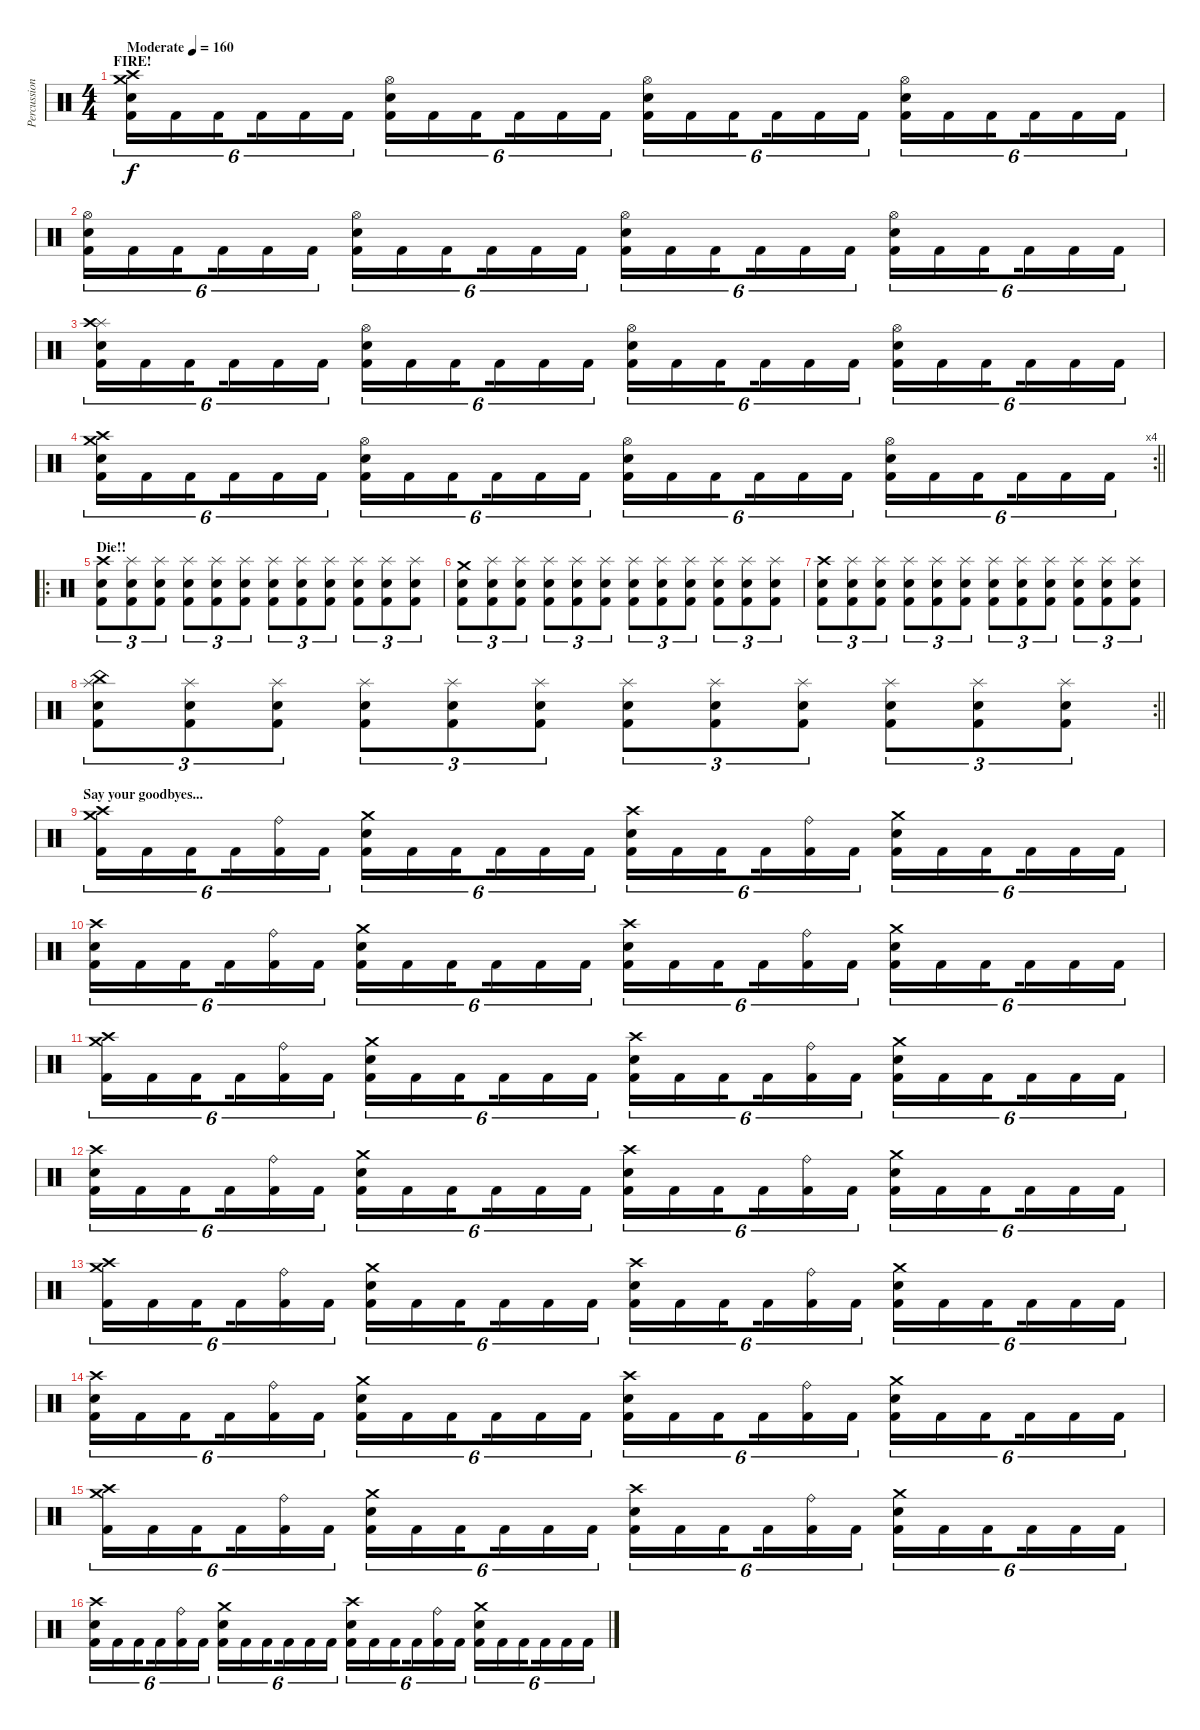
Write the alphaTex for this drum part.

\track ("Percussion" "Percussion") {instrument percussion}
\staff {score}
\articulation defaults
\ts (4 4)
\section ("" "FIRE!")
\tempo (160 "Moderate")
\clef neutral
\ks c
("Crash medium (hit)" "Crash high (hit)" "Electric Snare (hit)" "Kick (hit) 2").16{tu (6 4) dy f} "Kick (hit) 2".16{tu (6 4)} "Kick (hit) 2".16{tu (6 4) beam splitsecondary} "Kick (hit) 2".16{tu (6 4)} "Kick (hit) 2".16{tu (6 4)} "Kick (hit) 2".16{tu (6 4)} ("Hi-Hat (open)" "Electric Snare (hit)" "Kick (hit) 2").16{tu (6 4)} "Kick (hit) 2".16{tu (6 4)} "Kick (hit) 2".16{tu (6 4) beam splitsecondary} "Kick (hit) 2".16{tu (6 4)} "Kick (hit) 2".16{tu (6 4)} "Kick (hit) 2".16{tu (6 4)} ("Hi-Hat (open)" "Electric Snare (hit)" "Kick (hit) 2").16{tu (6 4)} "Kick (hit) 2".16{tu (6 4)} "Kick (hit) 2".16{tu (6 4) beam splitsecondary} "Kick (hit) 2".16{tu (6 4)} "Kick (hit) 2".16{tu (6 4)} "Kick (hit) 2".16{tu (6 4)} ("Hi-Hat (open)" "Electric Snare (hit)" "Kick (hit) 2").16{tu (6 4)} "Kick (hit) 2".16{tu (6 4)} "Kick (hit) 2".16{tu (6 4) beam splitsecondary} "Kick (hit) 2".16{tu (6 4)} "Kick (hit) 2".16{tu (6 4)} "Kick (hit) 2".16{tu (6 4)} |
("Hi-Hat (open)" "Electric Snare (hit)" "Kick (hit) 2").16{tu (6 4)} "Kick (hit) 2".16{tu (6 4)} "Kick (hit) 2".16{tu (6 4) beam splitsecondary} "Kick (hit) 2".16{tu (6 4)} "Kick (hit) 2".16{tu (6 4)} "Kick (hit) 2".16{tu (6 4)} ("Hi-Hat (open)" "Electric Snare (hit)" "Kick (hit) 2").16{tu (6 4)} "Kick (hit) 2".16{tu (6 4)} "Kick (hit) 2".16{tu (6 4) beam splitsecondary} "Kick (hit) 2".16{tu (6 4)} "Kick (hit) 2".16{tu (6 4)} "Kick (hit) 2".16{tu (6 4)} ("Hi-Hat (open)" "Electric Snare (hit)" "Kick (hit) 2").16{tu (6 4)} "Kick (hit) 2".16{tu (6 4)} "Kick (hit) 2".16{tu (6 4) beam splitsecondary} "Kick (hit) 2".16{tu (6 4)} "Kick (hit) 2".16{tu (6 4)} "Kick (hit) 2".16{tu (6 4)} ("Hi-Hat (open)" "Electric Snare (hit)" "Kick (hit) 2").16{tu (6 4)} "Kick (hit) 2".16{tu (6 4)} "Kick (hit) 2".16{tu (6 4) beam splitsecondary} "Kick (hit) 2".16{tu (6 4)} "Kick (hit) 2".16{tu (6 4)} "Kick (hit) 2".16{tu (6 4)} |
("Splash (hit)" "Crash high (hit)" "Electric Snare (hit)" "Kick (hit) 2").16{tu (6 4)} "Kick (hit) 2".16{tu (6 4)} "Kick (hit) 2".16{tu (6 4) beam splitsecondary} "Kick (hit) 2".16{tu (6 4)} "Kick (hit) 2".16{tu (6 4)} "Kick (hit) 2".16{tu (6 4)} ("Hi-Hat (open)" "Electric Snare (hit)" "Kick (hit) 2").16{tu (6 4)} "Kick (hit) 2".16{tu (6 4)} "Kick (hit) 2".16{tu (6 4) beam splitsecondary} "Kick (hit) 2".16{tu (6 4)} "Kick (hit) 2".16{tu (6 4)} "Kick (hit) 2".16{tu (6 4)} ("Hi-Hat (open)" "Electric Snare (hit)" "Kick (hit) 2").16{tu (6 4)} "Kick (hit) 2".16{tu (6 4)} "Kick (hit) 2".16{tu (6 4) beam splitsecondary} "Kick (hit) 2".16{tu (6 4)} "Kick (hit) 2".16{tu (6 4)} "Kick (hit) 2".16{tu (6 4)} ("Hi-Hat (open)" "Electric Snare (hit)" "Kick (hit) 2").16{tu (6 4)} "Kick (hit) 2".16{tu (6 4)} "Kick (hit) 2".16{tu (6 4) beam splitsecondary} "Kick (hit) 2".16{tu (6 4)} "Kick (hit) 2".16{tu (6 4)} "Kick (hit) 2".16{tu (6 4)} |
\rc 4
\barLineRight lightlight
("Crash medium (hit)" "Crash high (hit)" "Electric Snare (hit)" "Kick (hit) 2").16{tu (6 4)} "Kick (hit) 2".16{tu (6 4)} "Kick (hit) 2".16{tu (6 4) beam splitsecondary} "Kick (hit) 2".16{tu (6 4)} "Kick (hit) 2".16{tu (6 4)} "Kick (hit) 2".16{tu (6 4)} ("Hi-Hat (open)" "Electric Snare (hit)" "Kick (hit) 2").16{tu (6 4)} "Kick (hit) 2".16{tu (6 4)} "Kick (hit) 2".16{tu (6 4) beam splitsecondary} "Kick (hit) 2".16{tu (6 4)} "Kick (hit) 2".16{tu (6 4)} "Kick (hit) 2".16{tu (6 4)} ("Hi-Hat (open)" "Electric Snare (hit)" "Kick (hit) 2").16{tu (6 4)} "Kick (hit) 2".16{tu (6 4)} "Kick (hit) 2".16{tu (6 4) beam splitsecondary} "Kick (hit) 2".16{tu (6 4)} "Kick (hit) 2".16{tu (6 4)} "Kick (hit) 2".16{tu (6 4)} ("Hi-Hat (open)" "Electric Snare (hit)" "Kick (hit) 2").16{tu (6 4)} "Kick (hit) 2".16{tu (6 4)} "Kick (hit) 2".16{tu (6 4) beam splitsecondary} "Kick (hit) 2".16{tu (6 4)} "Kick (hit) 2".16{tu (6 4)} "Kick (hit) 2".16{tu (6 4)} |
\ro
\section ("" "Die!!")
("Crash high (hit)" "Electric Snare (hit)" "Kick (hit) 2").8{tu (3 2)} ("Splash (hit)" "Electric Snare (hit)" "Kick (hit) 2").8{tu (3 2)} ("Splash (hit)" "Electric Snare (hit)" "Kick (hit) 2").8{tu (3 2)} ("Splash (hit)" "Electric Snare (hit)" "Kick (hit) 2").8{tu (3 2)} ("Splash (hit)" "Electric Snare (hit)" "Kick (hit) 2").8{tu (3 2)} ("Splash (hit)" "Electric Snare (hit)" "Kick (hit) 2").8{tu (3 2)} ("Splash (hit)" "Electric Snare (hit)" "Kick (hit) 2").8{tu (3 2)} ("Splash (hit)" "Electric Snare (hit)" "Kick (hit) 2").8{tu (3 2)} ("Splash (hit)" "Electric Snare (hit)" "Kick (hit) 2").8{tu (3 2)} ("Splash (hit)" "Electric Snare (hit)" "Kick (hit) 2").8{tu (3 2)} ("Splash (hit)" "Electric Snare (hit)" "Kick (hit) 2").8{tu (3 2)} ("Splash (hit)" "Electric Snare (hit)" "Kick (hit) 2").8{tu (3 2)} |
("Crash medium (hit)" "Electric Snare (hit)" "Kick (hit) 2").8{tu (3 2)} ("Splash (hit)" "Electric Snare (hit)" "Kick (hit) 2").8{tu (3 2)} ("Splash (hit)" "Electric Snare (hit)" "Kick (hit) 2").8{tu (3 2)} ("Splash (hit)" "Electric Snare (hit)" "Kick (hit) 2").8{tu (3 2)} ("Splash (hit)" "Electric Snare (hit)" "Kick (hit) 2").8{tu (3 2)} ("Splash (hit)" "Electric Snare (hit)" "Kick (hit) 2").8{tu (3 2)} ("Splash (hit)" "Electric Snare (hit)" "Kick (hit) 2").8{tu (3 2)} ("Splash (hit)" "Electric Snare (hit)" "Kick (hit) 2").8{tu (3 2)} ("Splash (hit)" "Electric Snare (hit)" "Kick (hit) 2").8{tu (3 2)} ("Splash (hit)" "Electric Snare (hit)" "Kick (hit) 2").8{tu (3 2)} ("Splash (hit)" "Electric Snare (hit)" "Kick (hit) 2").8{tu (3 2)} ("Splash (hit)" "Electric Snare (hit)" "Kick (hit) 2").8{tu (3 2)} |
("Crash high (hit)" "Electric Snare (hit)" "Kick (hit) 2").8{tu (3 2)} ("Splash (hit)" "Electric Snare (hit)" "Kick (hit) 2").8{tu (3 2)} ("Splash (hit)" "Electric Snare (hit)" "Kick (hit) 2").8{tu (3 2)} ("Splash (hit)" "Electric Snare (hit)" "Kick (hit) 2").8{tu (3 2)} ("Splash (hit)" "Electric Snare (hit)" "Kick (hit) 2").8{tu (3 2)} ("Splash (hit)" "Electric Snare (hit)" "Kick (hit) 2").8{tu (3 2)} ("Splash (hit)" "Electric Snare (hit)" "Kick (hit) 2").8{tu (3 2)} ("Splash (hit)" "Electric Snare (hit)" "Kick (hit) 2").8{tu (3 2)} ("Splash (hit)" "Electric Snare (hit)" "Kick (hit) 2").8{tu (3 2)} ("Splash (hit)" "Electric Snare (hit)" "Kick (hit) 2").8{tu (3 2)} ("Splash (hit)" "Electric Snare (hit)" "Kick (hit) 2").8{tu (3 2)} ("Splash (hit)" "Electric Snare (hit)" "Kick (hit) 2").8{tu (3 2)} |
\rc 2
\barLineRight lightlight
("China (hit)" "Splash (hit)" "Electric Snare (hit)" "Kick (hit) 2").8{tu (3 2)} ("Splash (hit)" "Electric Snare (hit)" "Kick (hit) 2").8{tu (3 2)} ("Splash (hit)" "Electric Snare (hit)" "Kick (hit) 2").8{tu (3 2)} ("Splash (hit)" "Electric Snare (hit)" "Kick (hit) 2").8{tu (3 2)} ("Splash (hit)" "Electric Snare (hit)" "Kick (hit) 2").8{tu (3 2)} ("Splash (hit)" "Electric Snare (hit)" "Kick (hit) 2").8{tu (3 2)} ("Splash (hit)" "Electric Snare (hit)" "Kick (hit) 2").8{tu (3 2)} ("Splash (hit)" "Electric Snare (hit)" "Kick (hit) 2").8{tu (3 2)} ("Splash (hit)" "Electric Snare (hit)" "Kick (hit) 2").8{tu (3 2)} ("Splash (hit)" "Electric Snare (hit)" "Kick (hit) 2").8{tu (3 2)} ("Splash (hit)" "Electric Snare (hit)" "Kick (hit) 2").8{tu (3 2)} ("Splash (hit)" "Electric Snare (hit)" "Kick (hit) 2").8{tu (3 2)} |
\section ("" "Say your goodbyes...")
("Crash medium (hit)" "Crash high (hit)" "Kick (hit) 2").16{tu (6 4)} "Kick (hit) 2".16{tu (6 4)} "Kick (hit) 2".16{tu (6 4) beam splitsecondary} "Kick (hit) 2".16{tu (6 4)} ("Ride (bell)" "Kick (hit) 2").16{tu (6 4)} "Kick (hit) 2".16{tu (6 4)} ("Crash medium (hit)" "Electric Snare (hit)" "Kick (hit) 2").16{tu (6 4)} "Kick (hit) 2".16{tu (6 4)} "Kick (hit) 2".16{tu (6 4) beam splitsecondary} "Kick (hit) 2".16{tu (6 4)} "Kick (hit) 2".16{tu (6 4)} "Kick (hit) 2".16{tu (6 4)} ("Crash high (hit)" "Electric Snare (hit)" "Kick (hit) 2").16{tu (6 4)} "Kick (hit) 2".16{tu (6 4)} "Kick (hit) 2".16{tu (6 4) beam splitsecondary} "Kick (hit) 2".16{tu (6 4)} ("Ride (bell)" "Kick (hit) 2").16{tu (6 4)} "Kick (hit) 2".16{tu (6 4)} ("Crash medium (hit)" "Electric Snare (hit)" "Kick (hit) 2").16{tu (6 4)} "Kick (hit) 2".16{tu (6 4)} "Kick (hit) 2".16{tu (6 4) beam splitsecondary} "Kick (hit) 2".16{tu (6 4)} "Kick (hit) 2".16{tu (6 4)} "Kick (hit) 2".16{tu (6 4)} |
("Crash high (hit)" "Electric Snare (hit)" "Kick (hit) 2").16{tu (6 4)} "Kick (hit) 2".16{tu (6 4)} "Kick (hit) 2".16{tu (6 4) beam splitsecondary} "Kick (hit) 2".16{tu (6 4)} ("Ride (bell)" "Kick (hit) 2").16{tu (6 4)} "Kick (hit) 2".16{tu (6 4)} ("Crash medium (hit)" "Electric Snare (hit)" "Kick (hit) 2").16{tu (6 4)} "Kick (hit) 2".16{tu (6 4)} "Kick (hit) 2".16{tu (6 4) beam splitsecondary} "Kick (hit) 2".16{tu (6 4)} "Kick (hit) 2".16{tu (6 4)} "Kick (hit) 2".16{tu (6 4)} ("Crash high (hit)" "Electric Snare (hit)" "Kick (hit) 2").16{tu (6 4)} "Kick (hit) 2".16{tu (6 4)} "Kick (hit) 2".16{tu (6 4) beam splitsecondary} "Kick (hit) 2".16{tu (6 4)} ("Ride (bell)" "Kick (hit) 2").16{tu (6 4)} "Kick (hit) 2".16{tu (6 4)} ("Crash medium (hit)" "Electric Snare (hit)" "Kick (hit) 2").16{tu (6 4)} "Kick (hit) 2".16{tu (6 4)} "Kick (hit) 2".16{tu (6 4) beam splitsecondary} "Kick (hit) 2".16{tu (6 4)} "Kick (hit) 2".16{tu (6 4)} "Kick (hit) 2".16{tu (6 4)} |
("Crash medium (hit)" "Crash high (hit)" "Kick (hit) 2").16{tu (6 4)} "Kick (hit) 2".16{tu (6 4)} "Kick (hit) 2".16{tu (6 4) beam splitsecondary} "Kick (hit) 2".16{tu (6 4)} ("Ride (bell)" "Kick (hit) 2").16{tu (6 4)} "Kick (hit) 2".16{tu (6 4)} ("Crash medium (hit)" "Electric Snare (hit)" "Kick (hit) 2").16{tu (6 4)} "Kick (hit) 2".16{tu (6 4)} "Kick (hit) 2".16{tu (6 4) beam splitsecondary} "Kick (hit) 2".16{tu (6 4)} "Kick (hit) 2".16{tu (6 4)} "Kick (hit) 2".16{tu (6 4)} ("Crash high (hit)" "Electric Snare (hit)" "Kick (hit) 2").16{tu (6 4)} "Kick (hit) 2".16{tu (6 4)} "Kick (hit) 2".16{tu (6 4) beam splitsecondary} "Kick (hit) 2".16{tu (6 4)} ("Ride (bell)" "Kick (hit) 2").16{tu (6 4)} "Kick (hit) 2".16{tu (6 4)} ("Crash medium (hit)" "Electric Snare (hit)" "Kick (hit) 2").16{tu (6 4)} "Kick (hit) 2".16{tu (6 4)} "Kick (hit) 2".16{tu (6 4) beam splitsecondary} "Kick (hit) 2".16{tu (6 4)} "Kick (hit) 2".16{tu (6 4)} "Kick (hit) 2".16{tu (6 4)} |
("Crash high (hit)" "Electric Snare (hit)" "Kick (hit) 2").16{tu (6 4)} "Kick (hit) 2".16{tu (6 4)} "Kick (hit) 2".16{tu (6 4) beam splitsecondary} "Kick (hit) 2".16{tu (6 4)} ("Ride (bell)" "Kick (hit) 2").16{tu (6 4)} "Kick (hit) 2".16{tu (6 4)} ("Crash medium (hit)" "Electric Snare (hit)" "Kick (hit) 2").16{tu (6 4)} "Kick (hit) 2".16{tu (6 4)} "Kick (hit) 2".16{tu (6 4) beam splitsecondary} "Kick (hit) 2".16{tu (6 4)} "Kick (hit) 2".16{tu (6 4)} "Kick (hit) 2".16{tu (6 4)} ("Crash high (hit)" "Electric Snare (hit)" "Kick (hit) 2").16{tu (6 4)} "Kick (hit) 2".16{tu (6 4)} "Kick (hit) 2".16{tu (6 4) beam splitsecondary} "Kick (hit) 2".16{tu (6 4)} ("Ride (bell)" "Kick (hit) 2").16{tu (6 4)} "Kick (hit) 2".16{tu (6 4)} ("Crash medium (hit)" "Electric Snare (hit)" "Kick (hit) 2").16{tu (6 4)} "Kick (hit) 2".16{tu (6 4)} "Kick (hit) 2".16{tu (6 4) beam splitsecondary} "Kick (hit) 2".16{tu (6 4)} "Kick (hit) 2".16{tu (6 4)} "Kick (hit) 2".16{tu (6 4)} |
("Crash medium (hit)" "Crash high (hit)" "Kick (hit) 2").16{tu (6 4)} "Kick (hit) 2".16{tu (6 4)} "Kick (hit) 2".16{tu (6 4) beam splitsecondary} "Kick (hit) 2".16{tu (6 4)} ("Ride (bell)" "Kick (hit) 2").16{tu (6 4)} "Kick (hit) 2".16{tu (6 4)} ("Crash medium (hit)" "Electric Snare (hit)" "Kick (hit) 2").16{tu (6 4)} "Kick (hit) 2".16{tu (6 4)} "Kick (hit) 2".16{tu (6 4) beam splitsecondary} "Kick (hit) 2".16{tu (6 4)} "Kick (hit) 2".16{tu (6 4)} "Kick (hit) 2".16{tu (6 4)} ("Crash high (hit)" "Electric Snare (hit)" "Kick (hit) 2").16{tu (6 4)} "Kick (hit) 2".16{tu (6 4)} "Kick (hit) 2".16{tu (6 4) beam splitsecondary} "Kick (hit) 2".16{tu (6 4)} ("Ride (bell)" "Kick (hit) 2").16{tu (6 4)} "Kick (hit) 2".16{tu (6 4)} ("Crash medium (hit)" "Electric Snare (hit)" "Kick (hit) 2").16{tu (6 4)} "Kick (hit) 2".16{tu (6 4)} "Kick (hit) 2".16{tu (6 4) beam splitsecondary} "Kick (hit) 2".16{tu (6 4)} "Kick (hit) 2".16{tu (6 4)} "Kick (hit) 2".16{tu (6 4)} |
("Crash high (hit)" "Electric Snare (hit)" "Kick (hit) 2").16{tu (6 4)} "Kick (hit) 2".16{tu (6 4)} "Kick (hit) 2".16{tu (6 4) beam splitsecondary} "Kick (hit) 2".16{tu (6 4)} ("Ride (bell)" "Kick (hit) 2").16{tu (6 4)} "Kick (hit) 2".16{tu (6 4)} ("Crash medium (hit)" "Electric Snare (hit)" "Kick (hit) 2").16{tu (6 4)} "Kick (hit) 2".16{tu (6 4)} "Kick (hit) 2".16{tu (6 4) beam splitsecondary} "Kick (hit) 2".16{tu (6 4)} "Kick (hit) 2".16{tu (6 4)} "Kick (hit) 2".16{tu (6 4)} ("Crash high (hit)" "Electric Snare (hit)" "Kick (hit) 2").16{tu (6 4)} "Kick (hit) 2".16{tu (6 4)} "Kick (hit) 2".16{tu (6 4) beam splitsecondary} "Kick (hit) 2".16{tu (6 4)} ("Ride (bell)" "Kick (hit) 2").16{tu (6 4)} "Kick (hit) 2".16{tu (6 4)} ("Crash medium (hit)" "Electric Snare (hit)" "Kick (hit) 2").16{tu (6 4)} "Kick (hit) 2".16{tu (6 4)} "Kick (hit) 2".16{tu (6 4) beam splitsecondary} "Kick (hit) 2".16{tu (6 4)} "Kick (hit) 2".16{tu (6 4)} "Kick (hit) 2".16{tu (6 4)} |
("Crash medium (hit)" "Crash high (hit)" "Kick (hit) 2").16{tu (6 4)} "Kick (hit) 2".16{tu (6 4)} "Kick (hit) 2".16{tu (6 4) beam splitsecondary} "Kick (hit) 2".16{tu (6 4)} ("Ride (bell)" "Kick (hit) 2").16{tu (6 4)} "Kick (hit) 2".16{tu (6 4)} ("Crash medium (hit)" "Electric Snare (hit)" "Kick (hit) 2").16{tu (6 4)} "Kick (hit) 2".16{tu (6 4)} "Kick (hit) 2".16{tu (6 4) beam splitsecondary} "Kick (hit) 2".16{tu (6 4)} "Kick (hit) 2".16{tu (6 4)} "Kick (hit) 2".16{tu (6 4)} ("Crash high (hit)" "Electric Snare (hit)" "Kick (hit) 2").16{tu (6 4)} "Kick (hit) 2".16{tu (6 4)} "Kick (hit) 2".16{tu (6 4) beam splitsecondary} "Kick (hit) 2".16{tu (6 4)} ("Ride (bell)" "Kick (hit) 2").16{tu (6 4)} "Kick (hit) 2".16{tu (6 4)} ("Crash medium (hit)" "Electric Snare (hit)" "Kick (hit) 2").16{tu (6 4)} "Kick (hit) 2".16{tu (6 4)} "Kick (hit) 2".16{tu (6 4) beam splitsecondary} "Kick (hit) 2".16{tu (6 4)} "Kick (hit) 2".16{tu (6 4)} "Kick (hit) 2".16{tu (6 4)} |
("Crash high (hit)" "Electric Snare (hit)" "Kick (hit) 2").16{tu (6 4)} "Kick (hit) 2".16{tu (6 4)} "Kick (hit) 2".16{tu (6 4) beam splitsecondary} "Kick (hit) 2".16{tu (6 4)} ("Ride (bell)" "Kick (hit) 2").16{tu (6 4)} "Kick (hit) 2".16{tu (6 4)} ("Crash medium (hit)" "Electric Snare (hit)" "Kick (hit) 2").16{tu (6 4)} "Kick (hit) 2".16{tu (6 4)} "Kick (hit) 2".16{tu (6 4) beam splitsecondary} "Kick (hit) 2".16{tu (6 4)} "Kick (hit) 2".16{tu (6 4)} "Kick (hit) 2".16{tu (6 4)} ("Crash high (hit)" "Electric Snare (hit)" "Kick (hit) 2").16{tu (6 4)} "Kick (hit) 2".16{tu (6 4)} "Kick (hit) 2".16{tu (6 4) beam splitsecondary} "Kick (hit) 2".16{tu (6 4)} ("Ride (bell)" "Kick (hit) 2").16{tu (6 4)} "Kick (hit) 2".16{tu (6 4)} ("Crash medium (hit)" "Electric Snare (hit)" "Kick (hit) 2").16{tu (6 4)} "Kick (hit) 2".16{tu (6 4)} "Kick (hit) 2".16{tu (6 4) beam splitsecondary} "Kick (hit) 2".16{tu (6 4)} "Kick (hit) 2".16{tu (6 4)} "Kick (hit) 2".16{tu (6 4)}
